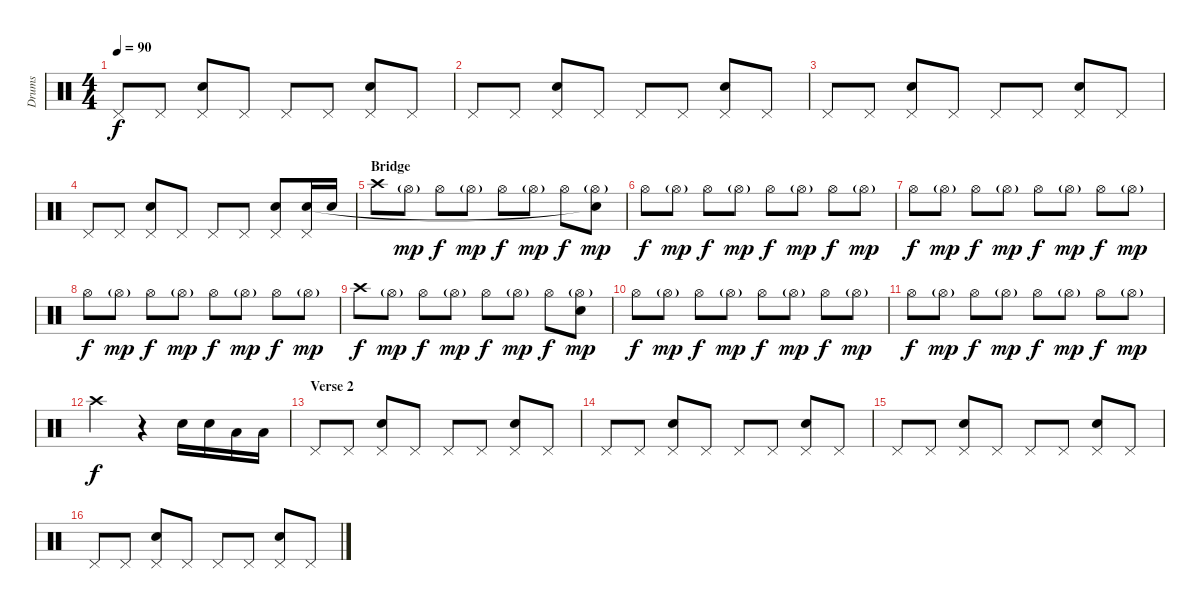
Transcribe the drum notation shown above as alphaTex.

\track ("Drums" "Drums") {instrument percussion}
\staff {score}
\articulation defaults
\ts (4 4)
\tempo 90
\clef neutral
\ks c "Pedal Hi-Hat (hit)".8{dy f} "Pedal Hi-Hat (hit)".8
("Pedal Hi-Hat (hit)" "Electric Snare (hit)").8 "Pedal Hi-Hat (hit)".8 "Pedal Hi-Hat (hit)".8 "Pedal Hi-Hat (hit)".8 ("Pedal Hi-Hat (hit)" "Electric Snare (hit)").8 "Pedal Hi-Hat (hit)".8 |
"Pedal Hi-Hat (hit)".8 "Pedal Hi-Hat (hit)".8 ("Pedal Hi-Hat (hit)" "Electric Snare (hit)").8 "Pedal Hi-Hat (hit)".8 "Pedal Hi-Hat (hit)".8 "Pedal Hi-Hat (hit)".8 ("Pedal Hi-Hat (hit)" "Electric Snare (hit)").8 "Pedal Hi-Hat (hit)".8 |
"Pedal Hi-Hat (hit)".8 "Pedal Hi-Hat (hit)".8 ("Pedal Hi-Hat (hit)" "Electric Snare (hit)").8 "Pedal Hi-Hat (hit)".8 "Pedal Hi-Hat (hit)".8 "Pedal Hi-Hat (hit)".8 ("Pedal Hi-Hat (hit)" "Electric Snare (hit)").8 "Pedal Hi-Hat (hit)".8 |
"Pedal Hi-Hat (hit)".8 "Pedal Hi-Hat (hit)".8 ("Pedal Hi-Hat (hit)" "Electric Snare (hit)").8 "Pedal Hi-Hat (hit)".8 "Pedal Hi-Hat (hit)".8 "Pedal Hi-Hat (hit)".8 ("Pedal Hi-Hat (hit)" "Electric Snare (hit)").8 ("Pedal Hi-Hat (hit)" "Electric Snare (hit)").16 "Electric Snare (hit)".16 |
\section ("" "Bridge")
"Crash high (hit)".8 "Hi-Hat (open)"{g}.8{dy mp} "Hi-Hat (open)".8{dy f} "Hi-Hat (open)"{g}.8{dy mp} "Hi-Hat (open)".8{dy f} "Hi-Hat (open)"{g}.8{dy mp} "Hi-Hat (open)".8{dy f} ("Hi-Hat (open)"{g} "Snare (hit)"{t}).8{dy mp} |
"Hi-Hat (open)".8{dy f} "Hi-Hat (open)"{g}.8{dy mp} "Hi-Hat (open)".8{dy f} "Hi-Hat (open)"{g}.8{dy mp} "Hi-Hat (open)".8{dy f} "Hi-Hat (open)"{g}.8{dy mp} "Hi-Hat (open)".8{dy f} "Hi-Hat (open)"{g}.8{dy mp} |
"Hi-Hat (open)".8{dy f} "Hi-Hat (open)"{g}.8{dy mp} "Hi-Hat (open)".8{dy f} "Hi-Hat (open)"{g}.8{dy mp} "Hi-Hat (open)".8{dy f} "Hi-Hat (open)"{g}.8{dy mp} "Hi-Hat (open)".8{dy f} "Hi-Hat (open)"{g}.8{dy mp} |
"Hi-Hat (open)".8{dy f} "Hi-Hat (open)"{g}.8{dy mp} "Hi-Hat (open)".8{dy f} "Hi-Hat (open)"{g}.8{dy mp} "Hi-Hat (open)".8{dy f} "Hi-Hat (open)"{g}.8{dy mp} "Hi-Hat (open)".8{dy f} "Hi-Hat (open)"{g}.8{dy mp} |
"Crash high (hit)".8{dy f} "Hi-Hat (open)"{g}.8{dy mp} "Hi-Hat (open)".8{dy f} "Hi-Hat (open)"{g}.8{dy mp} "Hi-Hat (open)".8{dy f} "Hi-Hat (open)"{g}.8{dy mp} "Hi-Hat (open)".8{dy f} ("Hi-Hat (open)"{g} "Snare (hit)").8{dy mp} |
"Hi-Hat (open)".8{dy f} "Hi-Hat (open)"{g}.8{dy mp} "Hi-Hat (open)".8{dy f} "Hi-Hat (open)"{g}.8{dy mp} "Hi-Hat (open)".8{dy f} "Hi-Hat (open)"{g}.8{dy mp} "Hi-Hat (open)".8{dy f} "Hi-Hat (open)"{g}.8{dy mp} |
"Hi-Hat (open)".8{dy f} "Hi-Hat (open)"{g}.8{dy mp} "Hi-Hat (open)".8{dy f} "Hi-Hat (open)"{g}.8{dy mp} "Hi-Hat (open)".8{dy f} "Hi-Hat (open)"{g}.8{dy mp} "Hi-Hat (open)".8{dy f} "Hi-Hat (open)"{g}.8{dy mp} |
"Crash high (hit)".2{dy f} r.4 "Electric Snare (hit)".16 "Electric Snare (hit)".16 "Low Floor Tom (hit)".16 "Low Floor Tom (hit)".16 |
\section ("" "Verse 2")
"Pedal Hi-Hat (hit)".8 "Pedal Hi-Hat (hit)".8 ("Pedal Hi-Hat (hit)" "Electric Snare (hit)").8 "Pedal Hi-Hat (hit)".8 "Pedal Hi-Hat (hit)".8 "Pedal Hi-Hat (hit)".8 ("Pedal Hi-Hat (hit)" "Electric Snare (hit)").8 "Pedal Hi-Hat (hit)".8 |
"Pedal Hi-Hat (hit)".8 "Pedal Hi-Hat (hit)".8 ("Pedal Hi-Hat (hit)" "Electric Snare (hit)").8 "Pedal Hi-Hat (hit)".8 "Pedal Hi-Hat (hit)".8 "Pedal Hi-Hat (hit)".8 ("Pedal Hi-Hat (hit)" "Electric Snare (hit)").8 "Pedal Hi-Hat (hit)".8 |
"Pedal Hi-Hat (hit)".8 "Pedal Hi-Hat (hit)".8 ("Pedal Hi-Hat (hit)" "Electric Snare (hit)").8 "Pedal Hi-Hat (hit)".8 "Pedal Hi-Hat (hit)".8 "Pedal Hi-Hat (hit)".8 ("Pedal Hi-Hat (hit)" "Electric Snare (hit)").8 "Pedal Hi-Hat (hit)".8 |
"Pedal Hi-Hat (hit)".8 "Pedal Hi-Hat (hit)".8 ("Pedal Hi-Hat (hit)" "Electric Snare (hit)").8 "Pedal Hi-Hat (hit)".8 "Pedal Hi-Hat (hit)".8 "Pedal Hi-Hat (hit)".8 ("Pedal Hi-Hat (hit)" "Electric Snare (hit)").8 "Pedal Hi-Hat (hit)".8
